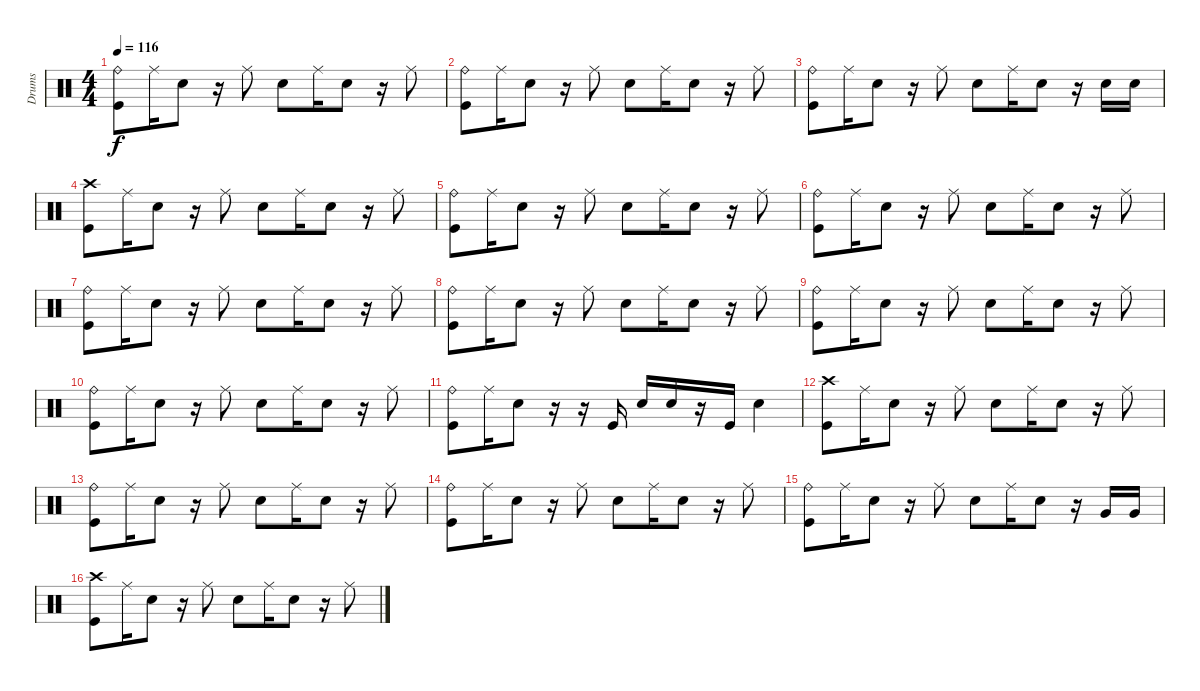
\track ("Drums" "Drums") {instrument percussion}
\staff {score}
\articulation defaults
\ts (4 4)
\tempo 116
\clef neutral
\ks c
("Ride (bell)" "Kick (hit)").8{dy f} "Ride (middle)".16 "Snare (hit) 2".8 r.16 "Ride (middle)".8 "Snare (hit) 2".8 "Ride (middle)".16 "Snare (hit) 2".8 r.16 "Ride (middle)".8 |
("Ride (bell)" "Kick (hit)").8 "Ride (middle)".16 "Snare (hit) 2".8 r.16 "Ride (middle)".8 "Snare (hit) 2".8 "Ride (middle)".16 "Snare (hit) 2".8 r.16 "Ride (middle)".8 |
("Ride (bell)" "Kick (hit)").8 "Ride (middle)".16 "Snare (hit) 2".8 r.16 "Ride (middle)".8 "Snare (hit) 2".8 "Ride (middle)".16 "Snare (hit) 2".8 r.16 "Snare (hit) 2".16 "Snare (hit) 2".16 |
("Crash high (hit)" "Kick (hit)").8 "Ride (middle)".16 "Snare (hit) 2".8 r.16 "Ride (middle)".8 "Snare (hit) 2".8 "Ride (middle)".16 "Snare (hit) 2".8 r.16 "Ride (middle)".8 |
("Ride (bell)" "Kick (hit)").8 "Ride (middle)".16 "Snare (hit) 2".8 r.16 "Ride (middle)".8 "Snare (hit) 2".8 "Ride (middle)".16 "Snare (hit) 2".8 r.16 "Ride (middle)".8 |
("Ride (bell)" "Kick (hit)").8 "Ride (middle)".16 "Snare (hit) 2".8 r.16 "Ride (middle)".8 "Snare (hit) 2".8 "Ride (middle)".16 "Snare (hit) 2".8 r.16 "Ride (middle)".8 |
("Ride (bell)" "Kick (hit)").8 "Ride (middle)".16 "Snare (hit) 2".8 r.16 "Ride (middle)".8 "Snare (hit) 2".8 "Ride (middle)".16 "Snare (hit) 2".8 r.16 "Ride (middle)".8 |
("Ride (bell)" "Kick (hit)").8 "Ride (middle)".16 "Snare (hit) 2".8 r.16 "Ride (middle)".8 "Snare (hit) 2".8 "Ride (middle)".16 "Snare (hit) 2".8 r.16 "Ride (middle)".8 |
("Ride (bell)" "Kick (hit)").8 "Ride (middle)".16 "Snare (hit) 2".8 r.16 "Ride (middle)".8 "Snare (hit) 2".8 "Ride (middle)".16 "Snare (hit) 2".8 r.16 "Ride (middle)".8 |
("Ride (bell)" "Kick (hit)").8 "Ride (middle)".16 "Snare (hit) 2".8 r.16 "Ride (middle)".8 "Snare (hit) 2".8 "Ride (middle)".16 "Snare (hit) 2".8 r.16 "Ride (middle)".8 |
("Ride (bell)" "Kick (hit)").8 "Ride (middle)".16 "Snare (hit) 2".8 r.16 r.16 "Kick (hit)".16 "Snare (hit) 2".16 "Snare (hit) 2".16 r.16 "Kick (hit)".16 "Snare (hit) 2".4 |
("Crash high (hit)" "Kick (hit)").8 "Ride (middle)".16 "Snare (hit) 2".8 r.16 "Ride (middle)".8 "Snare (hit) 2".8 "Ride (middle)".16 "Snare (hit) 2".8 r.16 "Ride (middle)".8 |
("Ride (bell)" "Kick (hit)").8 "Ride (middle)".16 "Snare (hit) 2".8 r.16 "Ride (middle)".8 "Snare (hit) 2".8 "Ride (middle)".16 "Snare (hit) 2".8 r.16 "Ride (middle)".8 |
("Ride (bell)" "Kick (hit)").8 "Ride (middle)".16 "Snare (hit) 2".8 r.16 "Ride (middle)".8 "Snare (hit) 2".8 "Ride (middle)".16 "Snare (hit) 2".8 r.16 "Ride (middle)".8 |
("Ride (bell)" "Kick (hit)").8 "Ride (middle)".16 "Snare (hit) 2".8 r.16 "Ride (middle)".8 "Snare (hit) 2".8 "Ride (middle)".16 "Snare (hit) 2".8 r.16 "Very Low Tom (hit)".16 "Very Low Tom (hit)".16 |
("Crash high (hit)" "Kick (hit)").8 "Ride (middle)".16 "Snare (hit) 2".8 r.16 "Ride (middle)".8 "Snare (hit) 2".8 "Ride (middle)".16 "Snare (hit) 2".8 r.16 "Ride (middle)".8
